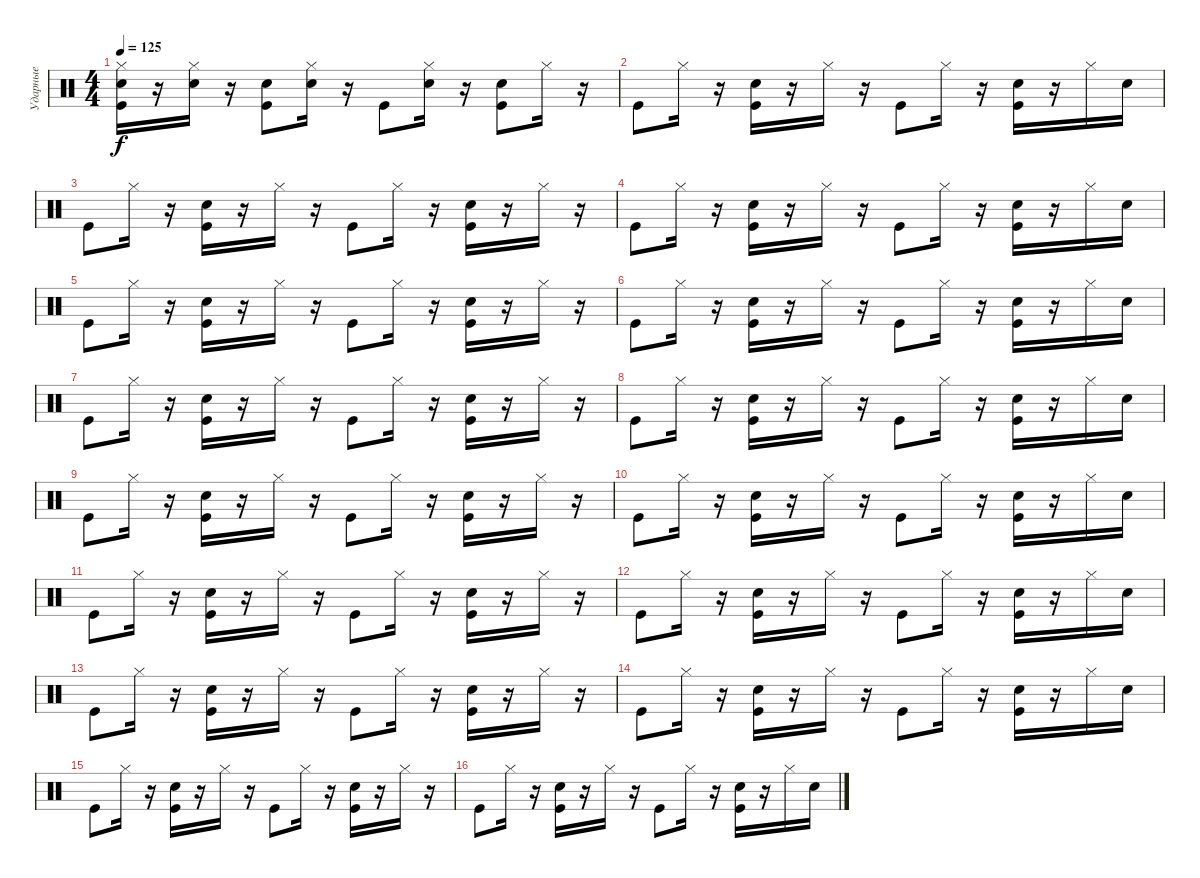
\track ("Ударные" "Ударные") {instrument percussion}
\staff {score}
\articulation defaults
\ts (4 4)
\tempo 125
\clef neutral
\ks c
("Hi-Hat (closed)" "Snare (hit) 2" "Kick (hit)").16{dy f} r.16 ("Hi-Hat (closed)" "Snare (hit) 2").16 r.16 ("Snare (hit) 2" "Kick (hit)").8 ("Hi-Hat (closed)" "Snare (hit) 2").16 r.16 "Kick (hit)".8 ("Hi-Hat (closed)" "Snare (hit) 2").16 r.16 ("Snare (hit) 2" "Kick (hit)").8 "Hi-Hat (closed)".16 r.16 |
"Kick (hit)".8 "Hi-Hat (closed)".16 r.16 ("Snare (hit) 2" "Kick (hit)").16 r.16 "Hi-Hat (closed)".16 r.16 "Kick (hit)".8 "Hi-Hat (closed)".16 r.16 ("Snare (hit) 2" "Kick (hit)").16 r.16 "Hi-Hat (closed)".16 "Snare (hit) 2".16 |
"Kick (hit)".8 "Hi-Hat (closed)".16 r.16 ("Snare (hit) 2" "Kick (hit)").16 r.16 "Hi-Hat (closed)".16 r.16 "Kick (hit)".8 "Hi-Hat (closed)".16 r.16 ("Snare (hit) 2" "Kick (hit)").16 r.16 "Hi-Hat (closed)".16 r.16 |
"Kick (hit)".8 "Hi-Hat (closed)".16 r.16 ("Snare (hit) 2" "Kick (hit)").16 r.16 "Hi-Hat (closed)".16 r.16 "Kick (hit)".8 "Hi-Hat (closed)".16 r.16 ("Snare (hit) 2" "Kick (hit)").16 r.16 "Hi-Hat (closed)".16 "Snare (hit) 2".16 |
"Kick (hit)".8 "Hi-Hat (closed)".16 r.16 ("Snare (hit) 2" "Kick (hit)").16 r.16 "Hi-Hat (closed)".16 r.16 "Kick (hit)".8 "Hi-Hat (closed)".16 r.16 ("Snare (hit) 2" "Kick (hit)").16 r.16 "Hi-Hat (closed)".16 r.16 |
"Kick (hit)".8 "Hi-Hat (closed)".16 r.16 ("Snare (hit) 2" "Kick (hit)").16 r.16 "Hi-Hat (closed)".16 r.16 "Kick (hit)".8 "Hi-Hat (closed)".16 r.16 ("Snare (hit) 2" "Kick (hit)").16 r.16 "Hi-Hat (closed)".16 "Snare (hit) 2".16 |
"Kick (hit)".8 "Hi-Hat (closed)".16 r.16 ("Snare (hit) 2" "Kick (hit)").16 r.16 "Hi-Hat (closed)".16 r.16 "Kick (hit)".8 "Hi-Hat (closed)".16 r.16 ("Snare (hit) 2" "Kick (hit)").16 r.16 "Hi-Hat (closed)".16 r.16 |
"Kick (hit)".8 "Hi-Hat (closed)".16 r.16 ("Snare (hit) 2" "Kick (hit)").16 r.16 "Hi-Hat (closed)".16 r.16 "Kick (hit)".8 "Hi-Hat (closed)".16 r.16 ("Snare (hit) 2" "Kick (hit)").16 r.16 "Hi-Hat (closed)".16 "Snare (hit) 2".16 |
"Kick (hit)".8 "Hi-Hat (closed)".16 r.16 ("Snare (hit) 2" "Kick (hit)").16 r.16 "Hi-Hat (closed)".16 r.16 "Kick (hit)".8 "Hi-Hat (closed)".16 r.16 ("Snare (hit) 2" "Kick (hit)").16 r.16 "Hi-Hat (closed)".16 r.16 |
"Kick (hit)".8 "Hi-Hat (closed)".16 r.16 ("Snare (hit) 2" "Kick (hit)").16 r.16 "Hi-Hat (closed)".16 r.16 "Kick (hit)".8 "Hi-Hat (closed)".16 r.16 ("Snare (hit) 2" "Kick (hit)").16 r.16 "Hi-Hat (closed)".16 "Snare (hit) 2".16 |
"Kick (hit)".8 "Hi-Hat (closed)".16 r.16 ("Snare (hit) 2" "Kick (hit)").16 r.16 "Hi-Hat (closed)".16 r.16 "Kick (hit)".8 "Hi-Hat (closed)".16 r.16 ("Snare (hit) 2" "Kick (hit)").16 r.16 "Hi-Hat (closed)".16 r.16 |
"Kick (hit)".8 "Hi-Hat (closed)".16 r.16 ("Snare (hit) 2" "Kick (hit)").16 r.16 "Hi-Hat (closed)".16 r.16 "Kick (hit)".8 "Hi-Hat (closed)".16 r.16 ("Snare (hit) 2" "Kick (hit)").16 r.16 "Hi-Hat (closed)".16 "Snare (hit) 2".16 |
"Kick (hit)".8 "Hi-Hat (closed)".16 r.16 ("Snare (hit) 2" "Kick (hit)").16 r.16 "Hi-Hat (closed)".16 r.16 "Kick (hit)".8 "Hi-Hat (closed)".16 r.16 ("Snare (hit) 2" "Kick (hit)").16 r.16 "Hi-Hat (closed)".16 r.16 |
"Kick (hit)".8 "Hi-Hat (closed)".16 r.16 ("Snare (hit) 2" "Kick (hit)").16 r.16 "Hi-Hat (closed)".16 r.16 "Kick (hit)".8 "Hi-Hat (closed)".16 r.16 ("Snare (hit) 2" "Kick (hit)").16 r.16 "Hi-Hat (closed)".16 "Snare (hit) 2".16 |
"Kick (hit)".8 "Hi-Hat (closed)".16 r.16 ("Snare (hit) 2" "Kick (hit)").16 r.16 "Hi-Hat (closed)".16 r.16 "Kick (hit)".8 "Hi-Hat (closed)".16 r.16 ("Snare (hit) 2" "Kick (hit)").16 r.16 "Hi-Hat (closed)".16 r.16 |
"Kick (hit)".8 "Hi-Hat (closed)".16 r.16 ("Snare (hit) 2" "Kick (hit)").16 r.16 "Hi-Hat (closed)".16 r.16 "Kick (hit)".8 "Hi-Hat (closed)".16 r.16 ("Snare (hit) 2" "Kick (hit)").16 r.16 "Hi-Hat (closed)".16 "Snare (hit) 2".16
